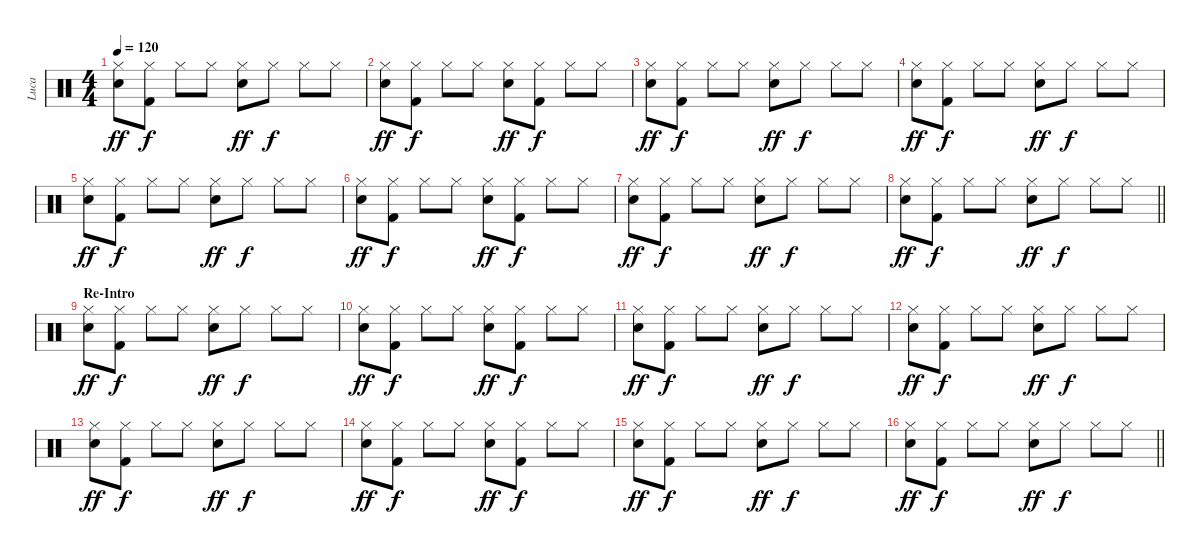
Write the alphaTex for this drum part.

\track ("Luca" "Luca") {instrument percussion}
\staff {score}
\articulation defaults
\ts (4 4)
\tempo 120
\clef neutral
\ks c
("Hi-Hat (closed)" "Snare (hit) 2").8{dy ff} ("Hi-Hat (closed)" "Kick (hit) 2").8{dy f} "Hi-Hat (closed)".8 "Hi-Hat (closed)".8 ("Hi-Hat (closed)" "Snare (hit) 2").8{dy ff} "Hi-Hat (closed)".8{dy f} "Hi-Hat (closed)".8 "Hi-Hat (closed)".8 |
("Hi-Hat (closed)" "Snare (hit) 2").8{dy ff} ("Hi-Hat (closed)" "Kick (hit) 2").8{dy f} "Hi-Hat (closed)".8 "Hi-Hat (closed)".8 ("Hi-Hat (closed)" "Snare (hit) 2").8{dy ff} ("Hi-Hat (closed)" "Kick (hit) 2").8{dy f} "Hi-Hat (closed)".8 "Hi-Hat (closed)".8 |
("Hi-Hat (closed)" "Snare (hit) 2").8{dy ff} ("Hi-Hat (closed)" "Kick (hit) 2").8{dy f} "Hi-Hat (closed)".8 "Hi-Hat (closed)".8 ("Hi-Hat (closed)" "Snare (hit) 2").8{dy ff} "Hi-Hat (closed)".8{dy f} "Hi-Hat (closed)".8 "Hi-Hat (closed)".8 |
("Hi-Hat (closed)" "Snare (hit) 2").8{dy ff} ("Hi-Hat (closed)" "Kick (hit) 2").8{dy f} "Hi-Hat (closed)".8 "Hi-Hat (closed)".8 ("Hi-Hat (closed)" "Snare (hit) 2").8{dy ff} "Hi-Hat (closed)".8{dy f} "Hi-Hat (closed)".8 "Hi-Hat (closed)".8 |
("Hi-Hat (closed)" "Snare (hit) 2").8{dy ff} ("Hi-Hat (closed)" "Kick (hit) 2").8{dy f} "Hi-Hat (closed)".8 "Hi-Hat (closed)".8 ("Hi-Hat (closed)" "Snare (hit) 2").8{dy ff} "Hi-Hat (closed)".8{dy f} "Hi-Hat (closed)".8 "Hi-Hat (closed)".8 |
("Hi-Hat (closed)" "Snare (hit) 2").8{dy ff} ("Hi-Hat (closed)" "Kick (hit) 2").8{dy f} "Hi-Hat (closed)".8 "Hi-Hat (closed)".8 ("Hi-Hat (closed)" "Snare (hit) 2").8{dy ff} ("Hi-Hat (closed)" "Kick (hit) 2").8{dy f} "Hi-Hat (closed)".8 "Hi-Hat (closed)".8 |
("Hi-Hat (closed)" "Snare (hit) 2").8{dy ff} ("Hi-Hat (closed)" "Kick (hit) 2").8{dy f} "Hi-Hat (closed)".8 "Hi-Hat (closed)".8 ("Hi-Hat (closed)" "Snare (hit) 2").8{dy ff} "Hi-Hat (closed)".8{dy f} "Hi-Hat (closed)".8 "Hi-Hat (closed)".8 |
\barLineRight lightlight
("Hi-Hat (closed)" "Snare (hit) 2").8{dy ff} ("Hi-Hat (closed)" "Kick (hit) 2").8{dy f} "Hi-Hat (closed)".8 "Hi-Hat (closed)".8 ("Hi-Hat (closed)" "Snare (hit) 2").8{dy ff} "Hi-Hat (closed)".8{dy f} "Hi-Hat (closed)".8 "Hi-Hat (closed)".8 |
\section ("" "Re-Intro")
("Hi-Hat (closed)" "Snare (hit) 2").8{dy ff} ("Hi-Hat (closed)" "Kick (hit) 2").8{dy f} "Hi-Hat (closed)".8 "Hi-Hat (closed)".8 ("Hi-Hat (closed)" "Snare (hit) 2").8{dy ff} "Hi-Hat (closed)".8{dy f} "Hi-Hat (closed)".8 "Hi-Hat (closed)".8 |
("Hi-Hat (closed)" "Snare (hit) 2").8{dy ff} ("Hi-Hat (closed)" "Kick (hit) 2").8{dy f} "Hi-Hat (closed)".8 "Hi-Hat (closed)".8 ("Hi-Hat (closed)" "Snare (hit) 2").8{dy ff} ("Hi-Hat (closed)" "Kick (hit) 2").8{dy f} "Hi-Hat (closed)".8 "Hi-Hat (closed)".8 |
("Hi-Hat (closed)" "Snare (hit) 2").8{dy ff} ("Hi-Hat (closed)" "Kick (hit) 2").8{dy f} "Hi-Hat (closed)".8 "Hi-Hat (closed)".8 ("Hi-Hat (closed)" "Snare (hit) 2").8{dy ff} "Hi-Hat (closed)".8{dy f} "Hi-Hat (closed)".8 "Hi-Hat (closed)".8 |
("Hi-Hat (closed)" "Snare (hit) 2").8{dy ff} ("Hi-Hat (closed)" "Kick (hit) 2").8{dy f} "Hi-Hat (closed)".8 "Hi-Hat (closed)".8 ("Hi-Hat (closed)" "Snare (hit) 2").8{dy ff} "Hi-Hat (closed)".8{dy f} "Hi-Hat (closed)".8 "Hi-Hat (closed)".8 |
("Hi-Hat (closed)" "Snare (hit) 2").8{dy ff} ("Hi-Hat (closed)" "Kick (hit) 2").8{dy f} "Hi-Hat (closed)".8 "Hi-Hat (closed)".8 ("Hi-Hat (closed)" "Snare (hit) 2").8{dy ff} "Hi-Hat (closed)".8{dy f} "Hi-Hat (closed)".8 "Hi-Hat (closed)".8 |
("Hi-Hat (closed)" "Snare (hit) 2").8{dy ff} ("Hi-Hat (closed)" "Kick (hit) 2").8{dy f} "Hi-Hat (closed)".8 "Hi-Hat (closed)".8 ("Hi-Hat (closed)" "Snare (hit) 2").8{dy ff} ("Hi-Hat (closed)" "Kick (hit) 2").8{dy f} "Hi-Hat (closed)".8 "Hi-Hat (closed)".8 |
("Hi-Hat (closed)" "Snare (hit) 2").8{dy ff} ("Hi-Hat (closed)" "Kick (hit) 2").8{dy f} "Hi-Hat (closed)".8 "Hi-Hat (closed)".8 ("Hi-Hat (closed)" "Snare (hit) 2").8{dy ff} "Hi-Hat (closed)".8{dy f} "Hi-Hat (closed)".8 "Hi-Hat (closed)".8 |
\barLineRight lightlight
("Hi-Hat (closed)" "Snare (hit) 2").8{dy ff} ("Hi-Hat (closed)" "Kick (hit) 2").8{dy f} "Hi-Hat (closed)".8 "Hi-Hat (closed)".8 ("Hi-Hat (closed)" "Snare (hit) 2").8{dy ff} "Hi-Hat (closed)".8{dy f} "Hi-Hat (closed)".8 "Hi-Hat (closed)".8
